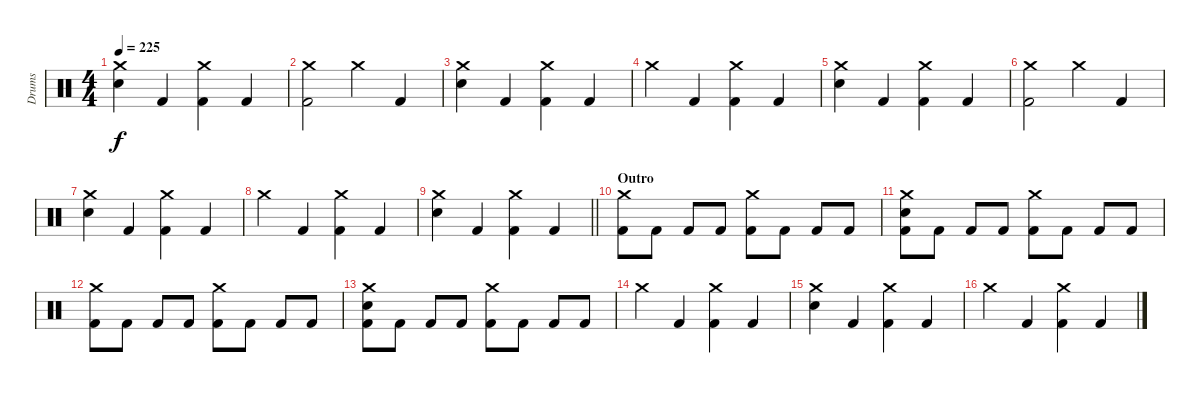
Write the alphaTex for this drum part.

\track ("Drums" "Drums") {instrument percussion}
\staff {score}
\articulation defaults
\ts (4 4)
\tempo 225
\clef neutral
\ks c
("Crash medium (hit)" "Electric Snare (hit)").4{dy f} "Kick (hit) 2".4 ("Crash medium (hit)" "Kick (hit) 2").4 "Kick (hit) 2".4 |
("Crash medium (hit)" "Kick (hit) 2").2 "Crash medium (hit)".4 "Kick (hit) 2".4 |
("Crash medium (hit)" "Electric Snare (hit)").4 "Kick (hit) 2".4 ("Crash medium (hit)" "Kick (hit) 2").4 "Kick (hit) 2".4 |
"Crash medium (hit)".4 "Kick (hit) 2".4 ("Crash medium (hit)" "Kick (hit) 2").4 "Kick (hit) 2".4 |
("Crash medium (hit)" "Electric Snare (hit)").4 "Kick (hit) 2".4 ("Crash medium (hit)" "Kick (hit) 2").4 "Kick (hit) 2".4 |
("Crash medium (hit)" "Kick (hit) 2").2 "Crash medium (hit)".4 "Kick (hit) 2".4 |
("Crash medium (hit)" "Electric Snare (hit)").4 "Kick (hit) 2".4 ("Crash medium (hit)" "Kick (hit) 2").4 "Kick (hit) 2".4 |
"Crash medium (hit)".4 "Kick (hit) 2".4 ("Crash medium (hit)" "Kick (hit) 2").4 "Kick (hit) 2".4 |
\barLineRight lightlight
("Crash medium (hit)" "Electric Snare (hit)").4 "Kick (hit) 2".4 ("Crash medium (hit)" "Kick (hit) 2").4 "Kick (hit) 2".4 |
\section ("" "Outro")
("Crash medium (hit)" "Kick (hit) 2").8 "Kick (hit) 2".8 "Kick (hit) 2".8 "Kick (hit) 2".8 ("Crash medium (hit)" "Kick (hit) 2").8 "Kick (hit) 2".8 "Kick (hit) 2".8 "Kick (hit) 2".8 |
("Crash medium (hit)" "Electric Snare (hit)" "Kick (hit) 2").8 "Kick (hit) 2".8 "Kick (hit) 2".8 "Kick (hit) 2".8 ("Crash medium (hit)" "Kick (hit) 2").8 "Kick (hit) 2".8 "Kick (hit) 2".8 "Kick (hit) 2".8 |
("Crash medium (hit)" "Kick (hit) 2").8 "Kick (hit) 2".8 "Kick (hit) 2".8 "Kick (hit) 2".8 ("Crash medium (hit)" "Kick (hit) 2").8 "Kick (hit) 2".8 "Kick (hit) 2".8 "Kick (hit) 2".8 |
("Crash medium (hit)" "Electric Snare (hit)" "Kick (hit) 2").8 "Kick (hit) 2".8 "Kick (hit) 2".8 "Kick (hit) 2".8 ("Crash medium (hit)" "Kick (hit) 2").8 "Kick (hit) 2".8 "Kick (hit) 2".8 "Kick (hit) 2".8 |
"Crash medium (hit)".4 "Kick (hit) 2".4 ("Crash medium (hit)" "Kick (hit) 2").4 "Kick (hit) 2".4 |
("Crash medium (hit)" "Electric Snare (hit)").4 "Kick (hit) 2".4 ("Crash medium (hit)" "Kick (hit) 2").4 "Kick (hit) 2".4 |
"Crash medium (hit)".4 "Kick (hit) 2".4 ("Crash medium (hit)" "Kick (hit) 2").4 "Kick (hit) 2".4
